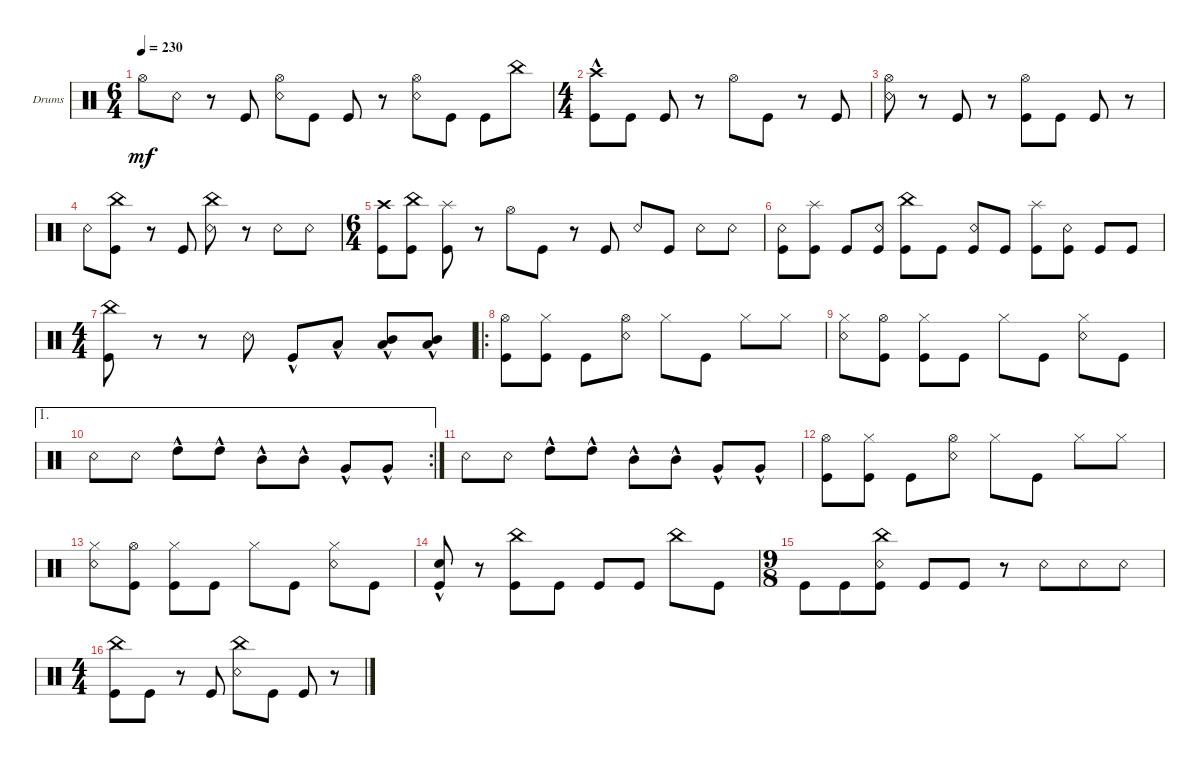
\bracketExtendMode groupsimilarinstruments
\firstSystemTrackNameOrientation horizontal
\otherSystemsTrackNameOrientation horizontal
\track ("Drumkit" "Drums") {instrument percussion}
\staff {score}
\articulation defaults
\ts (6 4)
\tempo 230
\clef neutral
\ks c "Hi-Hat (open)".8{dy mf} "Snare (rim shot)".8
r.8 "Kick (hit)".8 ("Snare (rim shot)" "Hi-Hat (open)").8 "Kick (hit)".8 "Kick (hit)".8 r.8 ("Hi-Hat (open)" "Snare (rim shot)").8 "Kick (hit)".8 "Kick (hit)".8 "China (hit)".8 |
\ts (4 4)
("Kick (hit)" "Crash high (hit)"{hac}).8 "Kick (hit)".8 "Kick (hit)".8 r.8 "Hi-Hat (open)".8 "Kick (hit)".8 r.8 "Kick (hit)".8 |
("Snare (rim shot)" "Hi-Hat (open)").8 r.8 "Kick (hit)".8 r.8 ("Kick (hit)" "Hi-Hat (open)").8 "Kick (hit)".8 "Kick (hit)".8 r.8 |
"Snare (rim shot)".8 ("China (hit)" "Kick (hit)").8 r.8 "Kick (hit)".8 ("Snare (rim shot)" "China (hit)").8 r.8 "Snare (rim shot)".8 "Snare (rim shot)".8 |
\ts (6 4)
("Kick (hit)" "Crash high (hit)").8 ("Kick (hit)" "China (hit)").8 ("Kick (hit)" "Splash (hit)").8 r.8 "Hi-Hat (open)".8 "Kick (hit)".8 r.8 "Kick (hit)".8 "Snare (rim shot)".8 "Kick (hit)".8 "Snare (rim shot)".8 "Snare (rim shot)".8 |
("Snare (rim shot)" "Kick (hit)").8 ("Kick (hit)" "Splash (hit)").8 "Kick (hit)".8 ("Kick (hit)" "Snare (rim shot)").8 ("Kick (hit)" "China (hit)").8 "Kick (hit)".8 ("Kick (hit)" "Snare (rim shot)").8 "Kick (hit)".8 ("Kick (hit)" "Splash (hit)").8 ("Kick (hit)" "Snare (rim shot)").8 "Kick (hit)".8 "Kick (hit)".8 |
\ts (4 4)
("Kick (hit)" "China (hit)").8 r.8 r.8 "Snare (rim shot)".8 "Kick (hit)"{hac}.8 "Low Tom (hit)"{hac}.8 ("Mid Tom (hit)"{hac} "Low Tom (hit)"{hac}).8 ("Low Tom (hit)"{hac} "Mid Tom (hit)"{hac}).8 |
\ro
("Kick (hit)" "Hi-Hat (open)").8 ("Kick (hit)" "Hi-Hat (closed)").8 "Kick (hit)".8 ("Hi-Hat (open)" "Snare (rim shot)").8 "Hi-Hat (closed)".8 "Kick (hit)".8 "Hi-Hat (closed)".8 "Hi-Hat (closed)".8 |
("Snare (rim shot)" "Hi-Hat (closed)").8 ("Hi-Hat (open)" "Kick (hit)").8 ("Hi-Hat (closed)" "Kick (hit)").8 "Kick (hit)".8 "Hi-Hat (closed)".8 "Kick (hit)".8 ("Hi-Hat (closed)" "Snare (rim shot)").8 "Kick (hit)".8 |
\ae 1
\rc 2 "Snare (rim shot)".8 "Snare (rim shot)".8 "High Tom (hit)"{hac}.8 "High Tom (hit)"{hac}.8 "Mid Tom (hit)"{hac}.8 "Mid Tom (hit)"{hac}.8 "Very Low Tom (hit)"{hac}.8 "Very Low Tom (hit)"{hac}.8
|
"Snare (rim shot)".8 "Snare (rim shot)".8 "High Tom (hit)"{hac}.8 "High Tom (hit)"{hac}.8 "Mid Tom (hit)"{hac}.8 "Mid Tom (hit)"{hac}.8 "Very Low Tom (hit)"{hac}.8 "Very Low Tom (hit)"{hac}.8 |
("Kick (hit)" "Hi-Hat (open)").8 ("Kick (hit)" "Hi-Hat (closed)").8 "Kick (hit)".8 ("Hi-Hat (open)" "Snare (rim shot)").8 "Hi-Hat (closed)".8 "Kick (hit)".8 "Hi-Hat (closed)".8 "Hi-Hat (closed)".8 |
("Snare (rim shot)" "Hi-Hat (closed)").8 ("Hi-Hat (open)" "Kick (hit)").8 ("Hi-Hat (closed)" "Kick (hit)").8 "Kick (hit)".8 "Hi-Hat (closed)".8 "Kick (hit)".8 ("Hi-Hat (closed)" "Snare (rim shot)").8 "Kick (hit)".8 |
("Snare (hit) 2"{hac} "Kick (hit)"{hac}).8 r.8 ("China (hit)" "Kick (hit)").8 "Kick (hit)".8 "Kick (hit)".8 "Kick (hit)".8 "China (hit)".8 "Kick (hit)".8 |
\ts (9 8)
"Kick (hit)".8 "Kick (hit)".8 ("Kick (hit)" "Snare (rim shot)" "China (hit)").8 "Kick (hit)".8 "Kick (hit)".8 r.8 "Snare (rim shot)".8 "Snare (rim shot)".8 "Snare (rim shot)".8 |
\ts (4 4)
("Kick (hit)" "China (hit)").8 "Kick (hit)".8 r.8 "Kick (hit)".8 ("Snare (rim shot)" "China (hit)").8 "Kick (hit)".8 "Kick (hit)".8 r.8
